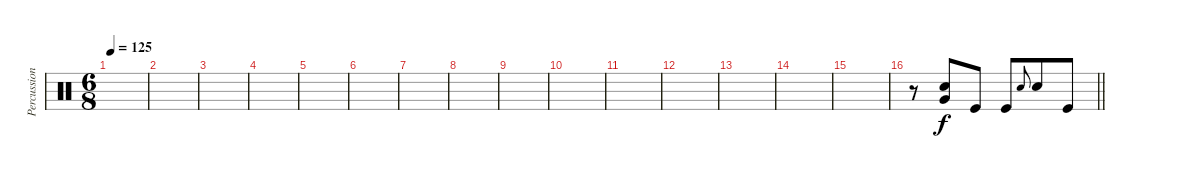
\track ("Percussion" "Percussion") {instrument percussion}
\staff {score}
\articulation defaults
\ts (6 8)
\tempo 125
\clef neutral
\ks c
|
|
|
|
|
|
|
|
|
|
|
|
|
|
|
\barLineRight lightlight
r.8 ("Snare (hit) 2" "Very Low Tom (hit)").8 "Kick (hit)".8 "Kick (hit)".8 "Snare (hit) 2".8{gr onbeat} "Snare (hit) 2".8 "Kick (hit)".8
